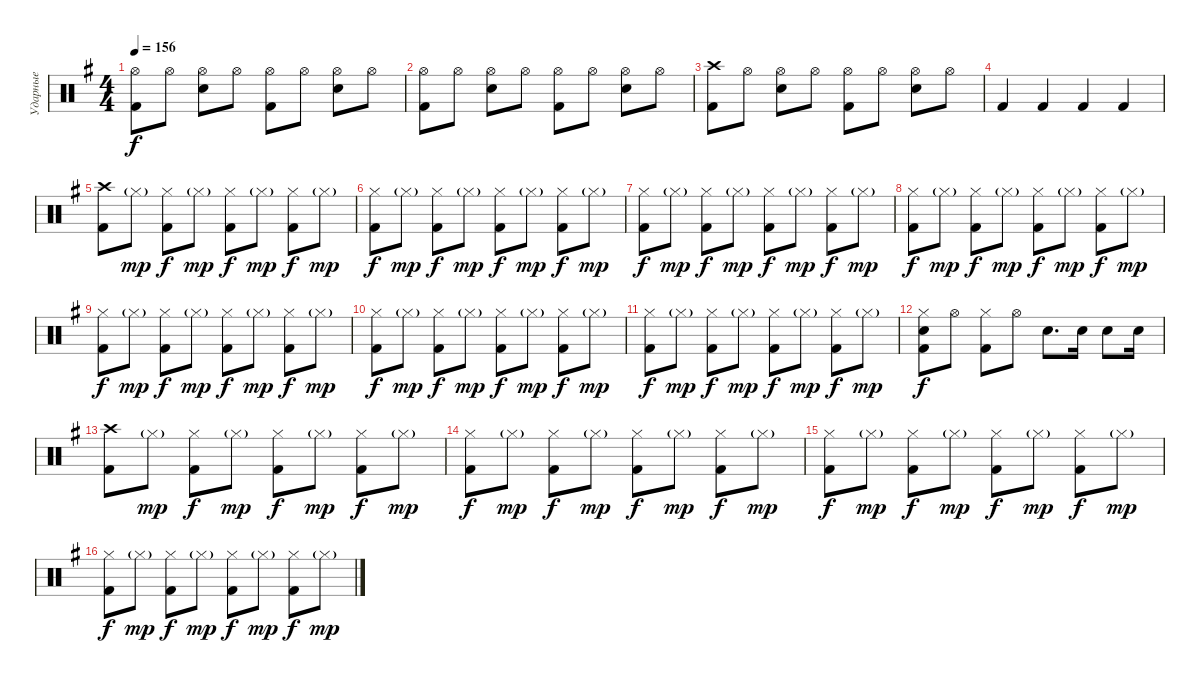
\track ("Ударные" "Ударные") {instrument percussion}
\staff {score}
\articulation defaults
\ts (4 4)
\tempo 156
\clef neutral
\ks g
("Hi-Hat (open)" "Kick (hit) 2").8{dy f} "Hi-Hat (open)".8 ("Hi-Hat (open)" "Electric Snare (hit)").8 "Hi-Hat (open)".8 ("Hi-Hat (open)" "Kick (hit) 2").8 "Hi-Hat (open)".8 ("Hi-Hat (open)" "Electric Snare (hit)").8 "Hi-Hat (open)".8 |
("Hi-Hat (open)" "Kick (hit) 2").8 "Hi-Hat (open)".8 ("Hi-Hat (open)" "Electric Snare (hit)").8 "Hi-Hat (open)".8 ("Hi-Hat (open)" "Kick (hit) 2").8 "Hi-Hat (open)".8 ("Hi-Hat (open)" "Electric Snare (hit)").8 "Hi-Hat (open)".8 |
("Crash high (hit)" "Kick (hit) 2").8 "Hi-Hat (open)".8 ("Hi-Hat (open)" "Electric Snare (hit)").8 "Hi-Hat (open)".8 ("Hi-Hat (open)" "Kick (hit) 2").8 "Hi-Hat (open)".8 ("Hi-Hat (open)" "Electric Snare (hit)").8 "Hi-Hat (open)".8 |
"Kick (hit) 2".4 "Kick (hit) 2".4 "Kick (hit) 2".4 "Kick (hit) 2".4 |
("Kick (hit) 2" "Crash high (hit)").8 "Hi-Hat (closed)"{g}.8{dy mp} ("Kick (hit) 2" "Hi-Hat (closed)").8{dy f} "Hi-Hat (closed)"{g}.8{dy mp} ("Kick (hit) 2" "Hi-Hat (closed)").8{dy f} "Hi-Hat (closed)"{g}.8{dy mp} ("Kick (hit) 2" "Hi-Hat (closed)").8{dy f} "Hi-Hat (closed)"{g}.8{dy mp} |
("Kick (hit) 2" "Hi-Hat (closed)").8{dy f} "Hi-Hat (closed)"{g}.8{dy mp} ("Kick (hit) 2" "Hi-Hat (closed)").8{dy f} "Hi-Hat (closed)"{g}.8{dy mp} ("Kick (hit) 2" "Hi-Hat (closed)").8{dy f} "Hi-Hat (closed)"{g}.8{dy mp} ("Kick (hit) 2" "Hi-Hat (closed)").8{dy f} "Hi-Hat (closed)"{g}.8{dy mp} |
("Kick (hit) 2" "Hi-Hat (closed)").8{dy f} "Hi-Hat (closed)"{g}.8{dy mp} ("Kick (hit) 2" "Hi-Hat (closed)").8{dy f} "Hi-Hat (closed)"{g}.8{dy mp} ("Kick (hit) 2" "Hi-Hat (closed)").8{dy f} "Hi-Hat (closed)"{g}.8{dy mp} ("Kick (hit) 2" "Hi-Hat (closed)").8{dy f} "Hi-Hat (closed)"{g}.8{dy mp} |
("Kick (hit) 2" "Hi-Hat (closed)").8{dy f} "Hi-Hat (closed)"{g}.8{dy mp} ("Kick (hit) 2" "Hi-Hat (closed)").8{dy f} "Hi-Hat (closed)"{g}.8{dy mp} ("Kick (hit) 2" "Hi-Hat (closed)").8{dy f} "Hi-Hat (closed)"{g}.8{dy mp} ("Kick (hit) 2" "Hi-Hat (closed)").8{dy f} "Hi-Hat (closed)"{g}.8{dy mp} |
("Kick (hit) 2" "Hi-Hat (closed)").8{dy f} "Hi-Hat (closed)"{g}.8{dy mp} ("Kick (hit) 2" "Hi-Hat (closed)").8{dy f} "Hi-Hat (closed)"{g}.8{dy mp} ("Kick (hit) 2" "Hi-Hat (closed)").8{dy f} "Hi-Hat (closed)"{g}.8{dy mp} ("Kick (hit) 2" "Hi-Hat (closed)").8{dy f} "Hi-Hat (closed)"{g}.8{dy mp} |
("Kick (hit) 2" "Hi-Hat (closed)").8{dy f} "Hi-Hat (closed)"{g}.8{dy mp} ("Kick (hit) 2" "Hi-Hat (closed)").8{dy f} "Hi-Hat (closed)"{g}.8{dy mp} ("Kick (hit) 2" "Hi-Hat (closed)").8{dy f} "Hi-Hat (closed)"{g}.8{dy mp} ("Kick (hit) 2" "Hi-Hat (closed)").8{dy f} "Hi-Hat (closed)"{g}.8{dy mp} |
("Kick (hit) 2" "Hi-Hat (closed)").8{dy f} "Hi-Hat (closed)"{g}.8{dy mp} ("Kick (hit) 2" "Hi-Hat (closed)").8{dy f} "Hi-Hat (closed)"{g}.8{dy mp} ("Kick (hit) 2" "Hi-Hat (closed)").8{dy f} "Hi-Hat (closed)"{g}.8{dy mp} ("Kick (hit) 2" "Hi-Hat (closed)").8{dy f} "Hi-Hat (closed)"{g}.8{dy mp} |
("Kick (hit) 2" "Hi-Hat (closed)" "Snare (hit)").8{dy f} "Hi-Hat (open)".8 ("Kick (hit) 2" "Hi-Hat (closed)").8 "Hi-Hat (open)".8 "Electric Snare (hit)".8{d} "Electric Snare (hit)".16 "Electric Snare (hit)".8 "Electric Snare (hit)".16 |
("Kick (hit) 2" "Crash high (hit)").8 "Hi-Hat (closed)"{g}.8{dy mp} ("Kick (hit) 2" "Hi-Hat (closed)").8{dy f} "Hi-Hat (closed)"{g}.8{dy mp} ("Kick (hit) 2" "Hi-Hat (closed)").8{dy f} "Hi-Hat (closed)"{g}.8{dy mp} ("Kick (hit) 2" "Hi-Hat (closed)").8{dy f} "Hi-Hat (closed)"{g}.8{dy mp} |
("Kick (hit) 2" "Hi-Hat (closed)").8{dy f} "Hi-Hat (closed)"{g}.8{dy mp} ("Kick (hit) 2" "Hi-Hat (closed)").8{dy f} "Hi-Hat (closed)"{g}.8{dy mp} ("Kick (hit) 2" "Hi-Hat (closed)").8{dy f} "Hi-Hat (closed)"{g}.8{dy mp} ("Kick (hit) 2" "Hi-Hat (closed)").8{dy f} "Hi-Hat (closed)"{g}.8{dy mp} |
("Kick (hit) 2" "Hi-Hat (closed)").8{dy f} "Hi-Hat (closed)"{g}.8{dy mp} ("Kick (hit) 2" "Hi-Hat (closed)").8{dy f} "Hi-Hat (closed)"{g}.8{dy mp} ("Kick (hit) 2" "Hi-Hat (closed)").8{dy f} "Hi-Hat (closed)"{g}.8{dy mp} ("Kick (hit) 2" "Hi-Hat (closed)").8{dy f} "Hi-Hat (closed)"{g}.8{dy mp} |
("Kick (hit) 2" "Hi-Hat (closed)").8{dy f} "Hi-Hat (closed)"{g}.8{dy mp} ("Kick (hit) 2" "Hi-Hat (closed)").8{dy f} "Hi-Hat (closed)"{g}.8{dy mp} ("Kick (hit) 2" "Hi-Hat (closed)").8{dy f} "Hi-Hat (closed)"{g}.8{dy mp} ("Kick (hit) 2" "Hi-Hat (closed)").8{dy f} "Hi-Hat (closed)"{g}.8{dy mp}
